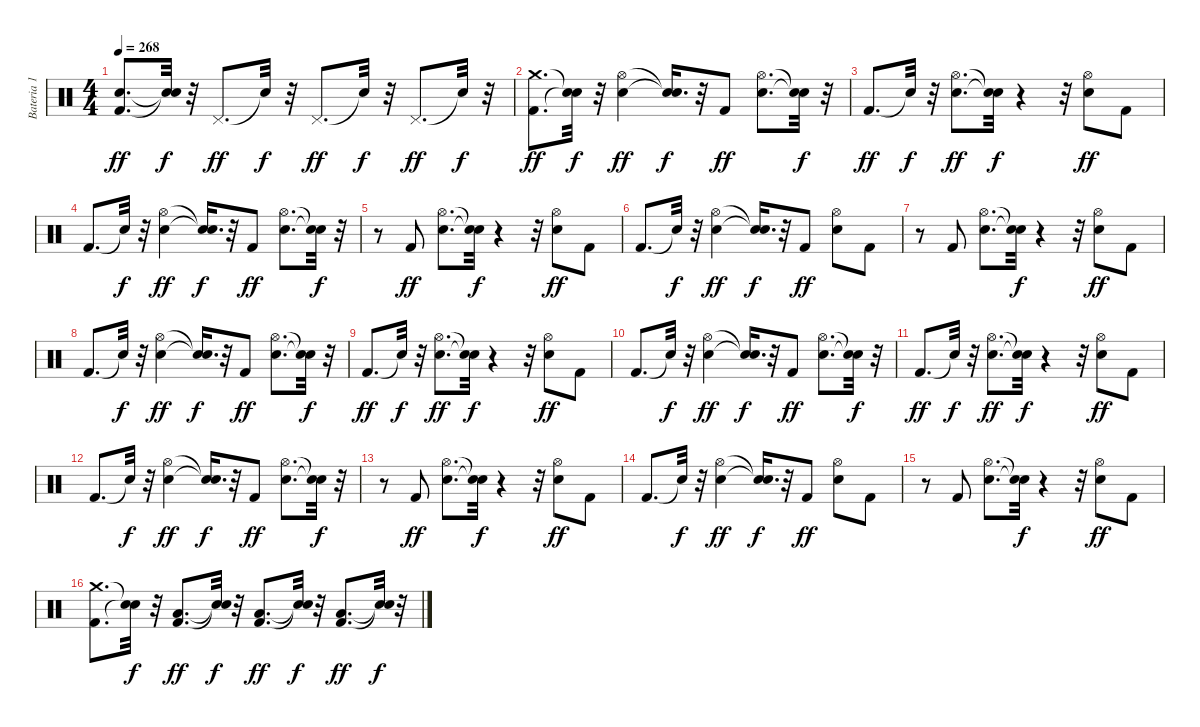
\track ("Bateria 1" "Bateria 1") {instrument percussion}
\staff {score}
\articulation defaults
\ts (4 4)
\tempo 268
\clef neutral
\ks c
("Kick (hit) 2" "Electric Snare (hit)").8{d dy ff} ("Snare (hit)"{t} "Snare (hit)"{t}).32{dy f} r.32 "Pedal Hi-Hat (hit)".8{d dy ff} "Snare (hit)"{t}.32{dy f} r.32 "Pedal Hi-Hat (hit)".8{d dy ff} "Snare (hit)"{t}.32{dy f} r.32 "Pedal Hi-Hat (hit)".8{d dy ff} "Snare (hit)"{t}.32{dy f} r.32 |
("Kick (hit) 2" "Crash medium (hit)").8{d dy ff} ("Snare (hit)"{t} "Snare (hit)"{t}).32{dy f} r.32 ("Electric Snare (hit)" "Hi-Hat (open)").4{dy ff} ("Snare (hit)"{t} "Snare (hit)"{t}).16{d dy f} r.32 "Kick (hit) 2".8{dy ff} ("Electric Snare (hit)" "Hi-Hat (open)").8{d} ("Snare (hit)"{t} "Snare (hit)"{t}).32{dy f} r.32 |
"Kick (hit) 2".8{d dy ff} "Snare (hit)"{t}.32{dy f} r.32 ("Electric Snare (hit)" "Hi-Hat (open)").8{d dy ff} ("Snare (hit)"{t} "Snare (hit)"{t}).32{dy f} r.4 r.32 ("Electric Snare (hit)" "Hi-Hat (open)").8{dy ff} "Kick (hit) 2".8 |
"Kick (hit) 2".8{d} "Snare (hit)"{t}.32{dy f} r.32 ("Electric Snare (hit)" "Hi-Hat (open)").4{dy ff} ("Snare (hit)"{t} "Snare (hit)"{t}).16{d dy f} r.32 "Kick (hit) 2".8{dy ff} ("Electric Snare (hit)" "Hi-Hat (open)").8{d} ("Snare (hit)"{t} "Snare (hit)"{t}).32{dy f} r.32 |
r.8 "Kick (hit) 2".8{dy ff} ("Electric Snare (hit)" "Hi-Hat (open)").8{d} ("Snare (hit)"{t} "Snare (hit)"{t}).32{dy f} r.4 r.32 ("Electric Snare (hit)" "Hi-Hat (open)").8{dy ff} "Kick (hit) 2".8 |
"Kick (hit) 2".8{d} "Snare (hit)"{t}.32{dy f} r.32 ("Electric Snare (hit)" "Hi-Hat (open)").4{dy ff} ("Snare (hit)"{t} "Snare (hit)"{t}).16{d dy f} r.32 "Kick (hit) 2".8{dy ff} ("Electric Snare (hit)" "Hi-Hat (open)").8 "Kick (hit) 2".8 |
r.8 "Kick (hit) 2".8 ("Electric Snare (hit)" "Hi-Hat (open)").8{d} ("Snare (hit)"{t} "Snare (hit)"{t}).32{dy f} r.4 r.32 ("Electric Snare (hit)" "Hi-Hat (open)").8{dy ff} "Kick (hit) 2".8 |
"Kick (hit) 2".8{d} "Snare (hit)"{t}.32{dy f} r.32 ("Electric Snare (hit)" "Hi-Hat (open)").4{dy ff} ("Snare (hit)"{t} "Snare (hit)"{t}).16{d dy f} r.32 "Kick (hit) 2".8{dy ff} ("Electric Snare (hit)" "Hi-Hat (open)").8{d} ("Snare (hit)"{t} "Snare (hit)"{t}).32{dy f} r.32 |
"Kick (hit) 2".8{d dy ff} "Snare (hit)"{t}.32{dy f} r.32 ("Electric Snare (hit)" "Hi-Hat (open)").8{d dy ff} ("Snare (hit)"{t} "Snare (hit)"{t}).32{dy f} r.4 r.32 ("Electric Snare (hit)" "Hi-Hat (open)").8{dy ff} "Kick (hit) 2".8 |
"Kick (hit) 2".8{d} "Snare (hit)"{t}.32{dy f} r.32 ("Electric Snare (hit)" "Hi-Hat (open)").4{dy ff} ("Snare (hit)"{t} "Snare (hit)"{t}).16{d dy f} r.32 "Kick (hit) 2".8{dy ff} ("Electric Snare (hit)" "Hi-Hat (open)").8{d} ("Snare (hit)"{t} "Snare (hit)"{t}).32{dy f} r.32 |
"Kick (hit) 2".8{d dy ff} "Snare (hit)"{t}.32{dy f} r.32 ("Electric Snare (hit)" "Hi-Hat (open)").8{d dy ff} ("Snare (hit)"{t} "Snare (hit)"{t}).32{dy f} r.4 r.32 ("Electric Snare (hit)" "Hi-Hat (open)").8{dy ff} "Kick (hit) 2".8 |
"Kick (hit) 2".8{d} "Snare (hit)"{t}.32{dy f} r.32 ("Electric Snare (hit)" "Hi-Hat (open)").4{dy ff} ("Snare (hit)"{t} "Snare (hit)"{t}).16{d dy f} r.32 "Kick (hit) 2".8{dy ff} ("Electric Snare (hit)" "Hi-Hat (open)").8{d} ("Snare (hit)"{t} "Snare (hit)"{t}).32{dy f} r.32 |
r.8 "Kick (hit) 2".8{dy ff} ("Electric Snare (hit)" "Hi-Hat (open)").8{d} ("Snare (hit)"{t} "Snare (hit)"{t}).32{dy f} r.4 r.32 ("Electric Snare (hit)" "Hi-Hat (open)").8{dy ff} "Kick (hit) 2".8 |
"Kick (hit) 2".8{d} "Snare (hit)"{t}.32{dy f} r.32 ("Electric Snare (hit)" "Hi-Hat (open)").4{dy ff} ("Snare (hit)"{t} "Snare (hit)"{t}).16{d dy f} r.32 "Kick (hit) 2".8{dy ff} ("Electric Snare (hit)" "Hi-Hat (open)").8 "Kick (hit) 2".8 |
r.8 "Kick (hit) 2".8 ("Electric Snare (hit)" "Hi-Hat (open)").8{d} ("Snare (hit)"{t} "Snare (hit)"{t}).32{dy f} r.4 r.32 ("Electric Snare (hit)" "Hi-Hat (open)").8{dy ff} "Kick (hit) 2".8 |
("Kick (hit) 2" "Crash medium (hit)").8{d} ("Snare (hit)"{t} "Snare (hit)"{t}).32{dy f} r.32 ("Kick (hit) 2" "Low Floor Tom (hit)").8{d dy ff} ("Snare (hit)"{t} "Snare (hit)"{t}).32{dy f} r.32 ("Kick (hit) 2" "Low Floor Tom (hit)").8{d dy ff} ("Snare (hit)"{t} "Snare (hit)"{t}).32{dy f} r.32 ("Kick (hit) 2" "Low Floor Tom (hit)").8{d dy ff} ("Snare (hit)"{t} "Snare (hit)"{t}).32{dy f} r.32
